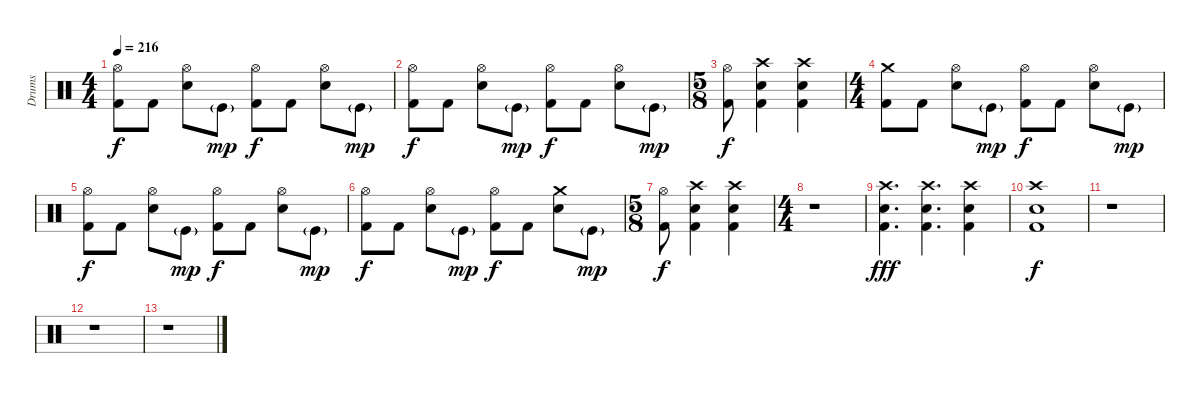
\track ("Drums" "Drums") {instrument percussion}
\staff {score}
\articulation defaults
\ts (4 4)
\tempo 216
\clef neutral
\ks c
("Hi-Hat (open)" "Kick (hit) 2").8{dy f} "Kick (hit) 2".8 ("Hi-Hat (open)" "Snare (hit) 2").8 "Kick (hit)"{g}.8{dy mp} ("Hi-Hat (open)" "Kick (hit) 2").8{dy f} "Kick (hit) 2".8 ("Hi-Hat (open)" "Snare (hit) 2").8 "Kick (hit)"{g}.8{dy mp} |
("Hi-Hat (open)" "Kick (hit) 2").8{dy f} "Kick (hit) 2".8 ("Hi-Hat (open)" "Snare (hit) 2").8 "Kick (hit)"{g}.8{dy mp} ("Hi-Hat (open)" "Kick (hit) 2").8{dy f} "Kick (hit) 2".8 ("Hi-Hat (open)" "Snare (hit) 2").8 "Kick (hit)"{g}.8{dy mp} |
\ts (5 8)
("Hi-Hat (open)" "Kick (hit) 2").8{dy f} ("Crash high (hit)" "Snare (hit) 2" "Kick (hit) 2").4 ("Crash high (hit)" "Snare (hit) 2" "Kick (hit) 2").4 |
\ts (4 4)
("Crash medium (hit)" "Kick (hit) 2").8 "Kick (hit) 2".8 ("Hi-Hat (open)" "Snare (hit) 2").8 "Kick (hit)"{g}.8{dy mp} ("Hi-Hat (open)" "Kick (hit) 2").8{dy f} "Kick (hit) 2".8 ("Hi-Hat (open)" "Snare (hit) 2").8 "Kick (hit)"{g}.8{dy mp} |
("Hi-Hat (open)" "Kick (hit) 2").8{dy f} "Kick (hit) 2".8 ("Hi-Hat (open)" "Snare (hit) 2").8 "Kick (hit)"{g}.8{dy mp} ("Hi-Hat (open)" "Kick (hit) 2").8{dy f} "Kick (hit) 2".8 ("Hi-Hat (open)" "Snare (hit) 2").8 "Kick (hit)"{g}.8{dy mp} |
("Hi-Hat (open)" "Kick (hit) 2").8{dy f} "Kick (hit) 2".8 ("Hi-Hat (open)" "Snare (hit) 2").8 "Kick (hit)"{g}.8{dy mp} ("Hi-Hat (open)" "Kick (hit) 2").8{dy f} "Kick (hit) 2".8 ("Crash medium (hit)" "Snare (hit) 2").8 "Kick (hit)"{g}.8{dy mp} |
\ts (5 8)
("Hi-Hat (open)" "Kick (hit) 2").8{dy f} ("Crash high (hit)" "Snare (hit) 2" "Kick (hit) 2").4 ("Crash high (hit)" "Snare (hit) 2" "Kick (hit) 2").4 |
\ts (4 4)
r.1 |
("Crash high (hit)" "Snare (hit) 2" "Kick (hit) 2").4{d dy fff} ("Crash high (hit)" "Snare (hit) 2" "Kick (hit) 2").4{d} ("Crash high (hit)" "Snare (hit) 2" "Kick (hit) 2").4 |
("Crash high (hit)" "Snare (hit) 2" "Kick (hit) 2").1{dy f} |
r.1 |
r.1 |
r.1
